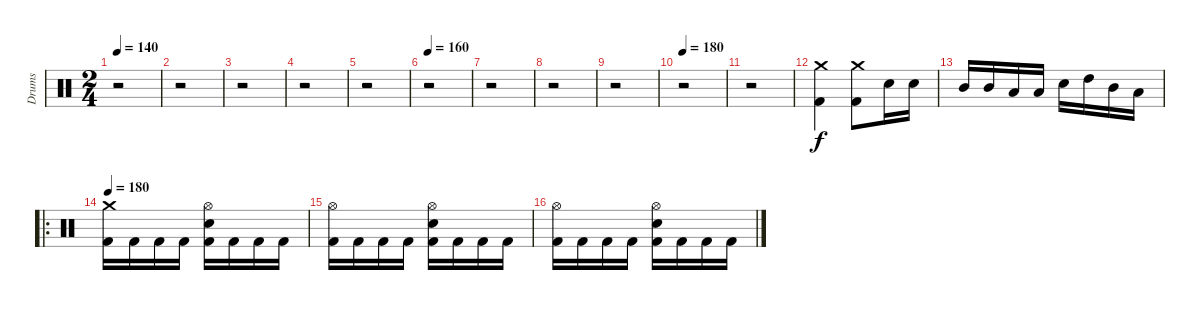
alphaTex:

\track ("Drums" "Drums") {instrument percussion}
\staff {score}
\articulation defaults
\ts (2 4)
\tempo 140
\clef neutral
\ks c
r.2{dy f} |
r.2 |
r.2 |
r.2 |
r.2 |
\tempo 160
r.2 |
r.2 |
r.2 |
r.2 |
\tempo 180
r.2 |
r.2 |
("Kick (hit) 2" "Crash medium (hit)").4 ("Kick (hit) 2" "Crash medium (hit)").8 "Electric Snare (hit)".16 "Electric Snare (hit)".16 |
"Mid Tom (hit)".16 "Mid Tom (hit)".16 "Low Tom (hit)".16 "Low Tom (hit)".16 "Electric Snare (hit)".16 "High Tom (hit)".16 "Mid Tom (hit)".16 "Low Tom (hit)".16 |
\ro
\tempo 180
("Kick (hit) 2" "Crash medium (hit)").16 "Kick (hit) 2".16 "Kick (hit) 2".16 "Kick (hit) 2".16 ("Kick (hit) 2" "Electric Snare (hit)" "Hi-Hat (open)").16 "Kick (hit) 2".16 "Kick (hit) 2".16 "Kick (hit) 2".16 |
("Kick (hit) 2" "Hi-Hat (open)").16 "Kick (hit) 2".16 "Kick (hit) 2".16 "Kick (hit) 2".16 ("Kick (hit) 2" "Electric Snare (hit)" "Hi-Hat (open)").16 "Kick (hit) 2".16 "Kick (hit) 2".16 "Kick (hit) 2".16 |
("Kick (hit) 2" "Hi-Hat (open)").16 "Kick (hit) 2".16 "Kick (hit) 2".16 "Kick (hit) 2".16 ("Kick (hit) 2" "Electric Snare (hit)" "Hi-Hat (open)").16 "Kick (hit) 2".16 "Kick (hit) 2".16 "Kick (hit) 2".16
